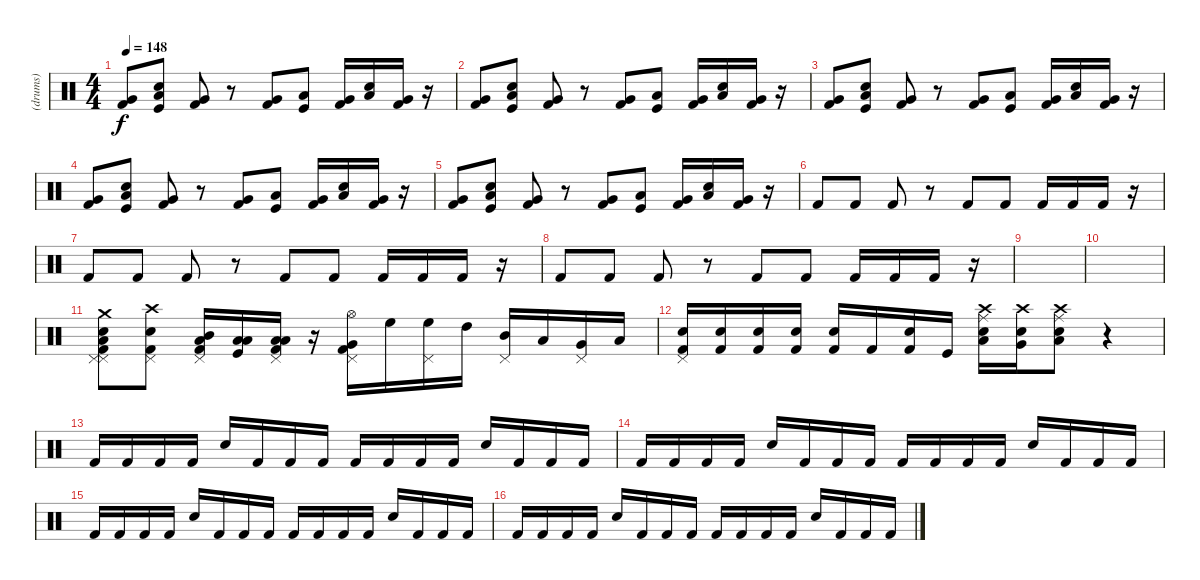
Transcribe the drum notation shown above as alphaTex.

\track ("(drums)" "(drums)") {instrument percussion}
\staff {score}
\articulation defaults
\ts (4 4)
\tempo 148
\clef neutral
\ks c
("Kick (hit) 2" "Very Low Tom (hit)").8{dy f} ("Kick (hit)" "Low Tom (hit)" "Electric Snare (hit)").8 ("Kick (hit) 2" "Very Low Tom (hit)").8 r.8 ("Kick (hit) 2" "Very Low Tom (hit)").8 ("Kick (hit)" "Low Tom (hit)").8 ("Kick (hit) 2" "Very Low Tom (hit)").16 ("Electric Snare (hit)" "Low Tom (hit)").16 ("Kick (hit) 2" "Very Low Tom (hit)").16 r.16 |
("Kick (hit) 2" "Very Low Tom (hit)").8 ("Kick (hit)" "Low Tom (hit)" "Electric Snare (hit)").8 ("Kick (hit) 2" "Very Low Tom (hit)").8 r.8 ("Kick (hit) 2" "Very Low Tom (hit)").8 ("Kick (hit)" "Low Tom (hit)").8 ("Kick (hit) 2" "Very Low Tom (hit)").16 ("Electric Snare (hit)" "Low Tom (hit)").16 ("Kick (hit) 2" "Very Low Tom (hit)").16 r.16 |
("Kick (hit) 2" "Very Low Tom (hit)").8 ("Kick (hit)" "Low Tom (hit)" "Electric Snare (hit)").8 ("Kick (hit) 2" "Very Low Tom (hit)").8 r.8 ("Kick (hit) 2" "Very Low Tom (hit)").8 ("Kick (hit)" "Low Tom (hit)").8 ("Kick (hit) 2" "Very Low Tom (hit)").16 ("Electric Snare (hit)" "Low Tom (hit)").16 ("Kick (hit) 2" "Very Low Tom (hit)").16 r.16 |
("Kick (hit) 2" "Very Low Tom (hit)").8 ("Kick (hit)" "Low Tom (hit)" "Electric Snare (hit)").8 ("Kick (hit) 2" "Very Low Tom (hit)").8 r.8 ("Kick (hit) 2" "Very Low Tom (hit)").8 ("Kick (hit)" "Low Tom (hit)").8 ("Kick (hit) 2" "Very Low Tom (hit)").16 ("Electric Snare (hit)" "Low Tom (hit)").16 ("Kick (hit) 2" "Very Low Tom (hit)").16 r.16 |
("Kick (hit) 2" "Very Low Tom (hit)").8 ("Kick (hit)" "Low Tom (hit)" "Electric Snare (hit)").8 ("Kick (hit) 2" "Very Low Tom (hit)").8 r.8 ("Kick (hit) 2" "Very Low Tom (hit)").8 ("Kick (hit)" "Low Tom (hit)").8 ("Kick (hit) 2" "Very Low Tom (hit)").16 ("Electric Snare (hit)" "Low Tom (hit)").16 ("Kick (hit) 2" "Very Low Tom (hit)").16 r.16 |
"Kick (hit) 2".8 "Kick (hit) 2".8 "Kick (hit) 2".8 r.8 "Kick (hit) 2".8 "Kick (hit) 2".8 "Kick (hit) 2".16 "Kick (hit) 2".16 "Kick (hit) 2".16 r.16 |
"Kick (hit) 2".8 "Kick (hit) 2".8 "Kick (hit) 2".8 r.8 "Kick (hit) 2".8 "Kick (hit) 2".8 "Kick (hit) 2".16 "Kick (hit) 2".16 "Kick (hit) 2".16 r.16 |
"Kick (hit) 2".8 "Kick (hit) 2".8 "Kick (hit) 2".8 r.8 "Kick (hit) 2".8 "Kick (hit) 2".8 "Kick (hit) 2".16 "Kick (hit) 2".16 "Kick (hit) 2".16 r.16 |
|
|
("Crash medium (hit)" "Pedal Hi-Hat (hit)" "Low Tom (hit)" "Electric Snare (hit)" "Kick (hit) 2" "Pedal Hi-Hat (hit)").8 ("Crash high (hit)" "Electric Snare (hit)" "Kick (hit) 2" "Pedal Hi-Hat (hit)").8 ("Pedal Hi-Hat (hit)" "Mid Tom (hit)" "Low Tom (hit)" "Kick (hit) 2").16 ("Low Tom (hit)" "Low Floor Tom (hit)" "Kick (hit)").16 ("Pedal Hi-Hat (hit)" "Low Tom (hit)" "Low Floor Tom (hit)" "Kick (hit) 2").16 r.16 ("Pedal Hi-Hat (hit)" "Hi-Hat (open)" "Very Low Tom (hit)" "Kick (hit) 2").16 "High Floor Tom (hit)".16 ("Pedal Hi-Hat (hit)" "High Floor Tom (hit)").16 "High Tom (hit)".16 ("Pedal Hi-Hat (hit)" "Mid Tom (hit)").16 "Low Tom (hit)".16 ("Pedal Hi-Hat (hit)" "Very Low Tom (hit)").16 "Low Floor Tom (hit)".16 |
("Pedal Hi-Hat (hit)" "Electric Snare (hit)" "Kick (hit) 2").16 ("Electric Snare (hit)" "Kick (hit) 2").16 ("Electric Snare (hit)" "Kick (hit) 2").16 ("Snare (hit) 2" "Kick (hit) 2").16 ("Electric Snare (hit)" "Kick (hit) 2").16 "Kick (hit) 2".16 ("Electric Snare (hit)" "Kick (hit) 2").16 "Kick (hit)".16 ("Ride (middle)" "Low Tom (hit)" "Snare (hit) 2" "Crash high (hit)").16 ("Very Low Tom (hit)" "Snare (hit) 2" "Crash high (hit)").16 ("Ride (middle)" "Low Floor Tom (hit)" "Snare (hit) 2" "Crash high (hit)").8 r.4 |
"Kick (hit) 2".16 "Kick (hit) 2".16 "Kick (hit) 2".16 "Kick (hit) 2".16 "Snare (hit) 2".16 "Kick (hit) 2".16 "Kick (hit) 2".16 "Kick (hit) 2".16 "Kick (hit) 2".16 "Kick (hit) 2".16 "Kick (hit) 2".16 "Kick (hit) 2".16 "Snare (hit) 2".16 "Kick (hit) 2".16 "Kick (hit) 2".16 "Kick (hit) 2".16 |
"Kick (hit) 2".16 "Kick (hit) 2".16 "Kick (hit) 2".16 "Kick (hit) 2".16 "Snare (hit) 2".16 "Kick (hit) 2".16 "Kick (hit) 2".16 "Kick (hit) 2".16 "Kick (hit) 2".16 "Kick (hit) 2".16 "Kick (hit) 2".16 "Kick (hit) 2".16 "Snare (hit) 2".16 "Kick (hit) 2".16 "Kick (hit) 2".16 "Kick (hit) 2".16 |
"Kick (hit) 2".16 "Kick (hit) 2".16 "Kick (hit) 2".16 "Kick (hit) 2".16 "Snare (hit) 2".16 "Kick (hit) 2".16 "Kick (hit) 2".16 "Kick (hit) 2".16 "Kick (hit) 2".16 "Kick (hit) 2".16 "Kick (hit) 2".16 "Kick (hit) 2".16 "Snare (hit) 2".16 "Kick (hit) 2".16 "Kick (hit) 2".16 "Kick (hit) 2".16 |
"Kick (hit) 2".16 "Kick (hit) 2".16 "Kick (hit) 2".16 "Kick (hit) 2".16 "Snare (hit) 2".16 "Kick (hit) 2".16 "Kick (hit) 2".16 "Kick (hit) 2".16 "Kick (hit) 2".16 "Kick (hit) 2".16 "Kick (hit) 2".16 "Kick (hit) 2".16 "Snare (hit) 2".16 "Kick (hit) 2".16 "Kick (hit) 2".16 "Kick (hit) 2".16
